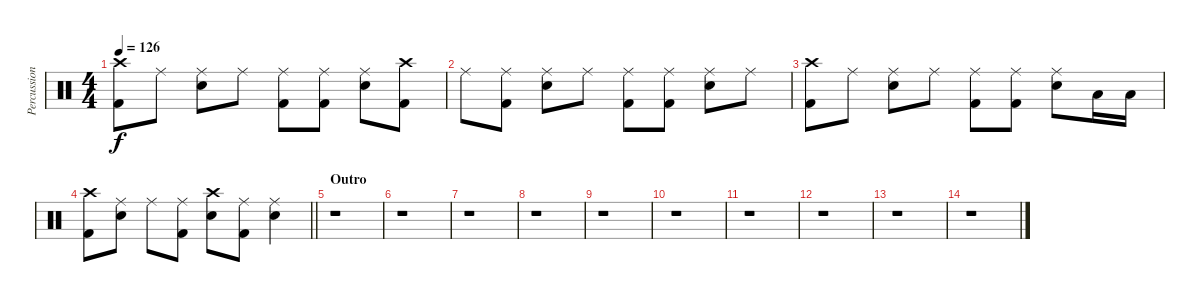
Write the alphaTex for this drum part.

\track ("Percussion" "Percussion") {instrument percussion}
\staff {score}
\articulation defaults
\ts (4 4)
\tempo 126
\clef neutral
\ks c
("Crash high (hit)" "Kick (hit) 2").8{dy f} "Ride (middle)".8 ("Ride (middle)" "Snare (hit) 2").8 "Ride (middle)".8 ("Ride (middle)" "Kick (hit) 2").8 ("Ride (middle)" "Kick (hit) 2").8 ("Ride (middle)" "Snare (hit) 2").8 ("Crash high (hit)" "Kick (hit) 2").8 |
"Ride (middle)".8 ("Ride (middle)" "Kick (hit) 2").8 ("Ride (middle)" "Snare (hit) 2").8 "Ride (middle)".8 ("Ride (middle)" "Kick (hit) 2").8 ("Ride (middle)" "Kick (hit) 2").8 ("Ride (middle)" "Snare (hit) 2").8 "Ride (middle)".8 |
("Crash high (hit)" "Kick (hit) 2").8 "Ride (middle)".8 ("Ride (middle)" "Snare (hit) 2").8 "Ride (middle)".8 ("Ride (middle)" "Kick (hit) 2").8 ("Ride (middle)" "Kick (hit) 2").8 ("Ride (middle)" "Snare (hit) 2").8 "Low Floor Tom (hit)".16 "Low Floor Tom (hit)".16 |
\barLineRight lightlight
("Crash high (hit)" "Kick (hit) 2").8 ("Ride (middle)" "Snare (hit) 2").8 "Ride (middle)".8 ("Ride (middle)" "Kick (hit) 2").8 ("Crash high (hit)" "Snare (hit) 2").8 ("Ride (middle)" "Kick (hit) 2").8 ("Ride (middle)" "Snare (hit) 2").4 |
\section ("" "Outro")
r.1 |
r.1 |
r.1 |
r.1 |
r.1 |
r.1 |
r.1 |
r.1 |
r.1 |
r.1
